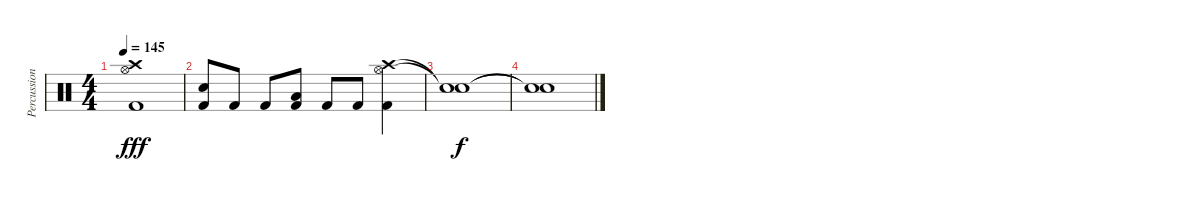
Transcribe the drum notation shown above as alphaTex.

\track ("Percussion" "Percussion") {instrument percussion}
\staff {score}
\articulation defaults
\ts (4 4)
\tempo 145
\clef neutral
\ks c
("Hi-Hat (open)" "Crash high (hit)" "Kick (hit) 2").1{dy fff} |
("Snare (hit) 2" "Kick (hit) 2").8 "Kick (hit) 2".8 "Kick (hit) 2".8 ("Low Floor Tom (hit)" "Kick (hit) 2").8 "Kick (hit) 2".8 "Kick (hit) 2".8 ("Crash high (hit)" "Hi-Hat (open)" "Kick (hit) 2").4 |
("Snare (hit)"{t} "Snare (hit)"{t}).1{dy f} |
("Snare (hit)"{t} "Snare (hit)"{t}).1
